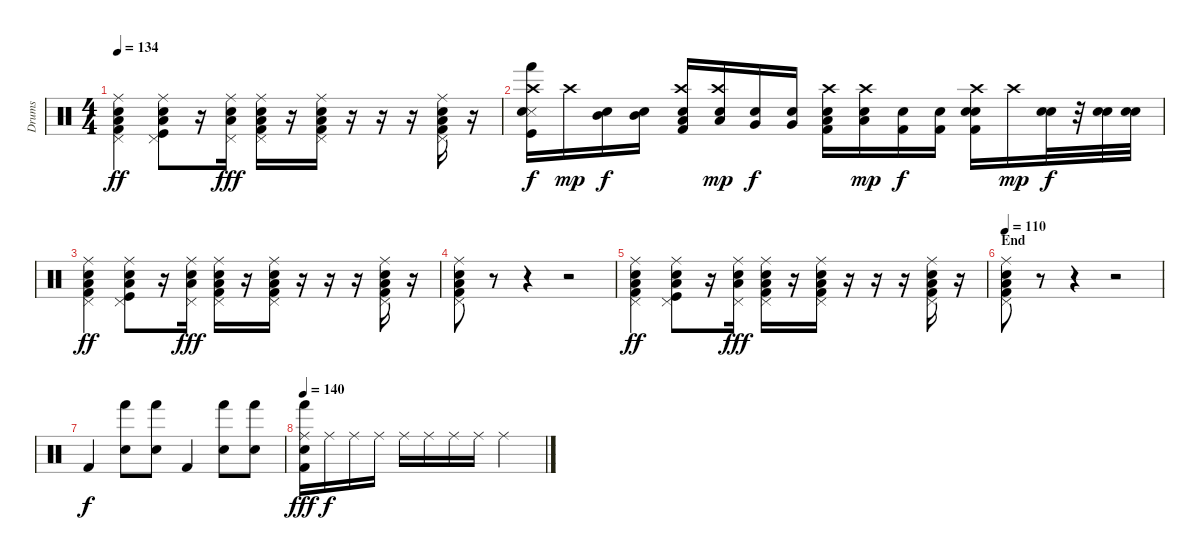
\track ("Drums" "Drums") {instrument percussion}
\staff {score}
\articulation defaults
\ts (4 4)
\tempo 134
\clef neutral
\ks c
("Ride (middle)" "Pedal Hi-Hat (hit)" "Low Floor Tom (hit)" "Electric Snare (hit)" "Kick (hit) 2").4{dy ff} ("Ride (middle)" "Pedal Hi-Hat (hit)" "Low Floor Tom (hit)" "Electric Snare (hit)" "Kick (hit)").8 r.16 ("Ride (middle)" "Pedal Hi-Hat (hit)" "Low Floor Tom (hit)" "Electric Snare (hit)").16{dy fff} ("Ride (middle)" "Pedal Hi-Hat (hit)" "Low Floor Tom (hit)" "Electric Snare (hit)" "Kick (hit) 2").16 r.16 ("Ride (middle)" "Pedal Hi-Hat (hit)" "Low Floor Tom (hit)" "Electric Snare (hit)" "Kick (hit) 2").16 r.16 r.16 r.16 ("Ride (middle)" "Pedal Hi-Hat (hit)" "Low Floor Tom (hit)" "Electric Snare (hit)" "Kick (hit) 2").16 r.16 |
("Crash high (hit)" "Hand (hit)" "Snare (side stick) 3" "Electric Snare (hit)" "Kick (hit)").16{dy f} "Crash high (hit)".16{dy mp} ("Mid Tom (hit)" "Electric Snare (hit)").16{dy f} ("Mid Tom (hit)" "Electric Snare (hit)").16 ("Crash high (hit)" "Low Tom (hit)" "Electric Snare (hit)" "Kick (hit) 2").16 ("Crash high (hit)" "Low Tom (hit)" "Electric Snare (hit)").16{dy mp} ("Very Low Tom (hit)" "Electric Snare (hit)").16{dy f} ("Very Low Tom (hit)" "Electric Snare (hit)").16 ("Crash high (hit)" "Low Floor Tom (hit)" "Electric Snare (hit)" "Kick (hit) 2").16 ("Crash high (hit)" "Low Floor Tom (hit)" "Electric Snare (hit)").16{dy mp} ("Kick (hit) 2" "Electric Snare (hit)").16{dy f} ("Kick (hit) 2" "Electric Snare (hit)").16 ("Crash high (hit)" "Snare (hit) 2" "Electric Snare (hit)" "Kick (hit) 2").16 "Crash high (hit)".16{dy mp} ("Snare (hit) 2" "Electric Snare (hit)").32{dy f} r.32 ("Snare (hit) 2" "Electric Snare (hit)").32 ("Snare (hit) 2" "Electric Snare (hit)").32 |
("Ride (middle)" "Pedal Hi-Hat (hit)" "Low Floor Tom (hit)" "Electric Snare (hit)" "Kick (hit) 2").4{dy ff} ("Ride (middle)" "Pedal Hi-Hat (hit)" "Low Floor Tom (hit)" "Electric Snare (hit)" "Kick (hit)").8 r.16 ("Ride (middle)" "Pedal Hi-Hat (hit)" "Low Floor Tom (hit)" "Electric Snare (hit)").16{dy fff} ("Ride (middle)" "Pedal Hi-Hat (hit)" "Low Floor Tom (hit)" "Electric Snare (hit)" "Kick (hit) 2").16 r.16 ("Ride (middle)" "Pedal Hi-Hat (hit)" "Low Floor Tom (hit)" "Electric Snare (hit)" "Kick (hit) 2").16 r.16 r.16 r.16 ("Ride (middle)" "Pedal Hi-Hat (hit)" "Low Floor Tom (hit)" "Electric Snare (hit)" "Kick (hit) 2").16 r.16 |
("Ride (middle)" "Pedal Hi-Hat (hit)" "Low Floor Tom (hit)" "Electric Snare (hit)" "Kick (hit) 2").8 r.8 r.4 r.2 |
("Ride (middle)" "Pedal Hi-Hat (hit)" "Low Floor Tom (hit)" "Electric Snare (hit)" "Kick (hit) 2").4{dy ff} ("Ride (middle)" "Pedal Hi-Hat (hit)" "Low Floor Tom (hit)" "Electric Snare (hit)" "Kick (hit)").8 r.16 ("Ride (middle)" "Pedal Hi-Hat (hit)" "Low Floor Tom (hit)" "Electric Snare (hit)").16{dy fff} ("Ride (middle)" "Pedal Hi-Hat (hit)" "Low Floor Tom (hit)" "Electric Snare (hit)" "Kick (hit) 2").16 r.16 ("Ride (middle)" "Pedal Hi-Hat (hit)" "Low Floor Tom (hit)" "Electric Snare (hit)" "Kick (hit) 2").16 r.16 r.16 r.16 ("Ride (middle)" "Pedal Hi-Hat (hit)" "Low Floor Tom (hit)" "Electric Snare (hit)" "Kick (hit) 2").16 r.16 |
\section ("" "End")
\tempo 110
("Ride (middle)" "Pedal Hi-Hat (hit)" "Low Floor Tom (hit)" "Electric Snare (hit)" "Kick (hit) 2").8 r.8 r.4 r.2 |
"Kick (hit) 2".4{dy f} ("Hand (hit)" "Electric Snare (hit)").8 ("Hand (hit)" "Electric Snare (hit)").8 "Kick (hit) 2".4 ("Hand (hit)" "Electric Snare (hit)").8 ("Hand (hit)" "Electric Snare (hit)").8 |
\tempo 140
("Ride (middle)" "Hand (hit)" "Electric Snare (hit)" "Kick (hit) 2").16{dy fff volume 3} "Ride (middle)".16{dy f} "Ride (middle)".16 "Ride (middle)".16 "Ride (middle)".16 "Ride (middle)".16 "Ride (middle)".16 "Ride (middle)".16 "Ride (middle)".2
